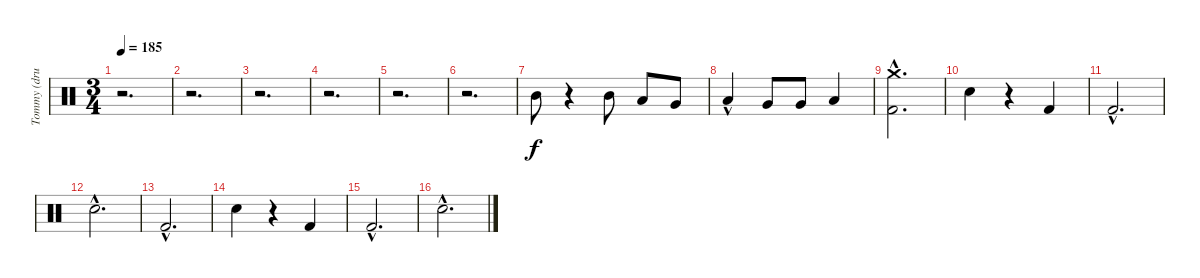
\track ("Tommy (drums)" "Tommy (dru") {instrument percussion}
\staff {score}
\articulation defaults
\ts (3 4)
\tempo 185
\clef neutral
\ks c
r.2{d dy f} |
r.2{d} |
r.2{d} |
r.2{d} |
r.2{d} |
r.2{d} |
"Mid Tom (hit)".8 r.4 "Mid Tom (hit)".8 "Low Tom (hit)".8 "Very Low Tom (hit)".8 |
"Low Tom (hit)"{hac}.4 "Very Low Tom (hit)".8 "Very Low Tom (hit)".8 "Low Floor Tom (hit)".4 |
("Crash medium (hit)"{hac} "Kick (hit) 2"{hac}).2{d} |
"Electric Snare (hit)".4 r.4 "Kick (hit) 2".4 |
"Kick (hit) 2"{hac}.2{d} |
"Electric Snare (hit)"{hac}.2{d} |
"Kick (hit) 2"{hac}.2{d} |
"Electric Snare (hit)".4 r.4 "Kick (hit) 2".4 |
"Kick (hit) 2"{hac}.2{d} |
"Electric Snare (hit)"{hac}.2{d}
